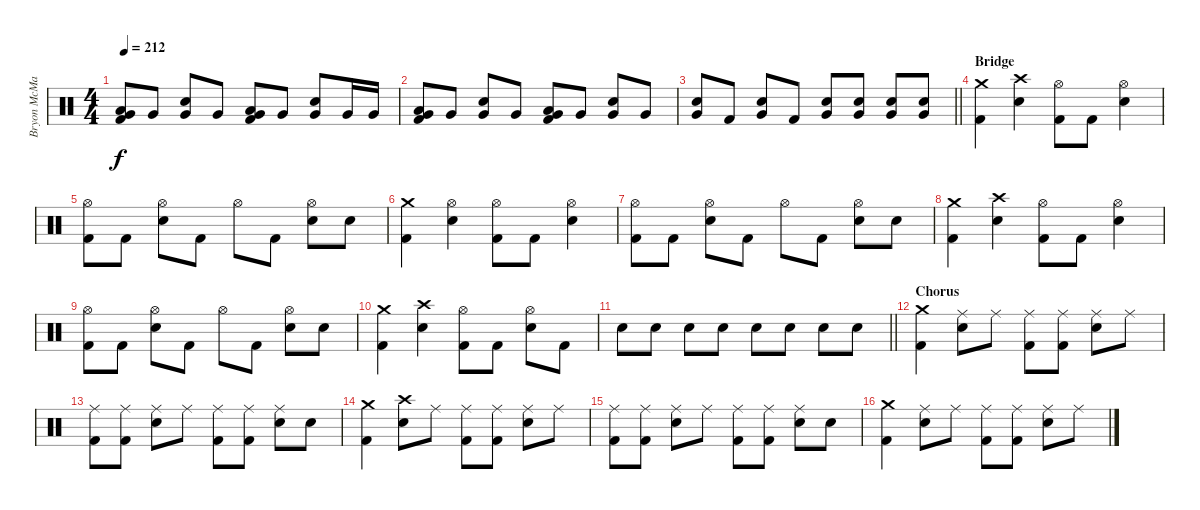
\track ("Bryon McMackin - Drums" "Bryon McMa") {instrument percussion}
\staff {score}
\articulation defaults
\ts (4 4)
\tempo 212
\clef neutral
\ks c
("Low Tom (hit)" "Very Low Tom (hit)" "Kick (hit) 2").8{dy f} "Very Low Tom (hit)".8 ("Electric Snare (hit)" "Very Low Tom (hit)").8 "Very Low Tom (hit)".8 ("Low Tom (hit)" "Very Low Tom (hit)" "Kick (hit) 2").8 "Very Low Tom (hit)".8 ("Electric Snare (hit)" "Very Low Tom (hit)").8 "Very Low Tom (hit)".16 "Very Low Tom (hit)".16 |
("Low Tom (hit)" "Very Low Tom (hit)" "Kick (hit) 2").8 "Very Low Tom (hit)".8 ("Electric Snare (hit)" "Very Low Tom (hit)").8 "Very Low Tom (hit)".8 ("Low Tom (hit)" "Very Low Tom (hit)" "Kick (hit) 2").8 "Very Low Tom (hit)".8 ("Electric Snare (hit)" "Very Low Tom (hit)").8 "Very Low Tom (hit)".8 |
\barLineRight lightlight
("Electric Snare (hit)" "Very Low Tom (hit)").8 "Kick (hit) 2".8 ("Electric Snare (hit)" "Very Low Tom (hit)").8 "Kick (hit) 2".8 ("Electric Snare (hit)" "Very Low Tom (hit)").8 ("Electric Snare (hit)" "Very Low Tom (hit)").8 ("Electric Snare (hit)" "Very Low Tom (hit)").8 ("Electric Snare (hit)" "Very Low Tom (hit)").8 |
\section ("" "Bridge")
("Crash medium (hit)" "Kick (hit) 2").4 ("Crash high (hit)" "Electric Snare (hit)").4 ("Hi-Hat (open)" "Kick (hit) 2").8 "Kick (hit) 2".8 ("Hi-Hat (open)" "Electric Snare (hit)").4 |
("Hi-Hat (open)" "Kick (hit) 2").8 "Kick (hit) 2".8 ("Hi-Hat (open)" "Electric Snare (hit)").8 "Kick (hit) 2".8 "Hi-Hat (open)".8 "Kick (hit) 2".8 ("Hi-Hat (open)" "Electric Snare (hit)").8 "Electric Snare (hit)".8 |
("Crash medium (hit)" "Kick (hit) 2").4 ("Hi-Hat (open)" "Electric Snare (hit)").4 ("Hi-Hat (open)" "Kick (hit) 2").8 "Kick (hit) 2".8 ("Hi-Hat (open)" "Electric Snare (hit)").4 |
("Hi-Hat (open)" "Kick (hit) 2").8 "Kick (hit) 2".8 ("Hi-Hat (open)" "Electric Snare (hit)").8 "Kick (hit) 2".8 "Hi-Hat (open)".8 "Kick (hit) 2".8 ("Hi-Hat (open)" "Electric Snare (hit)").8 "Electric Snare (hit)".8 |
("Crash medium (hit)" "Kick (hit) 2").4 ("Crash high (hit)" "Electric Snare (hit)").4 ("Hi-Hat (open)" "Kick (hit) 2").8 "Kick (hit) 2".8 ("Hi-Hat (open)" "Electric Snare (hit)").4 |
("Hi-Hat (open)" "Kick (hit) 2").8 "Kick (hit) 2".8 ("Hi-Hat (open)" "Electric Snare (hit)").8 "Kick (hit) 2".8 "Hi-Hat (open)".8 "Kick (hit) 2".8 ("Hi-Hat (open)" "Electric Snare (hit)").8 "Electric Snare (hit)".8 |
("Crash medium (hit)" "Kick (hit) 2").4 ("Crash high (hit)" "Electric Snare (hit)").4 ("Hi-Hat (open)" "Kick (hit) 2").8 "Kick (hit) 2".8 ("Hi-Hat (open)" "Electric Snare (hit)").8 "Kick (hit) 2".8 |
\barLineRight lightlight "Electric Snare (hit)".8 "Electric Snare (hit)".8 "Electric Snare (hit)".8 "Electric Snare (hit)".8 "Electric Snare (hit)".8 "Electric Snare (hit)".8 "Electric Snare (hit)".8 "Electric Snare (hit)".8
|
\section ("" "Chorus")
("Crash medium (hit)" "Kick (hit) 2").4 ("Ride (middle)" "Electric Snare (hit)").8 "Ride (middle)".8 ("Ride (middle)" "Kick (hit) 2").8 ("Ride (middle)" "Kick (hit) 2").8 ("Ride (middle)" "Electric Snare (hit)").8 "Ride (middle)".8 |
("Ride (middle)" "Kick (hit) 2").8 ("Ride (middle)" "Kick (hit) 2").8 ("Ride (middle)" "Electric Snare (hit)").8 "Ride (middle)".8 ("Ride (middle)" "Kick (hit) 2").8 ("Ride (middle)" "Kick (hit) 2").8 ("Ride (middle)" "Electric Snare (hit)").8 "Electric Snare (hit)".8 |
("Crash medium (hit)" "Kick (hit) 2").4 ("Crash high (hit)" "Electric Snare (hit)").8 "Ride (middle)".8 ("Ride (middle)" "Kick (hit) 2").8 ("Ride (middle)" "Kick (hit) 2").8 ("Ride (middle)" "Electric Snare (hit)").8 "Ride (middle)".8 |
("Ride (middle)" "Kick (hit) 2").8 ("Ride (middle)" "Kick (hit) 2").8 ("Ride (middle)" "Electric Snare (hit)").8 "Ride (middle)".8 ("Ride (middle)" "Kick (hit) 2").8 ("Ride (middle)" "Kick (hit) 2").8 ("Ride (middle)" "Electric Snare (hit)").8 "Electric Snare (hit)".8 |
("Crash medium (hit)" "Kick (hit) 2").4 ("Ride (middle)" "Electric Snare (hit)").8 "Ride (middle)".8 ("Ride (middle)" "Kick (hit) 2").8 ("Ride (middle)" "Kick (hit) 2").8 ("Ride (middle)" "Electric Snare (hit)").8 "Ride (middle)".8
